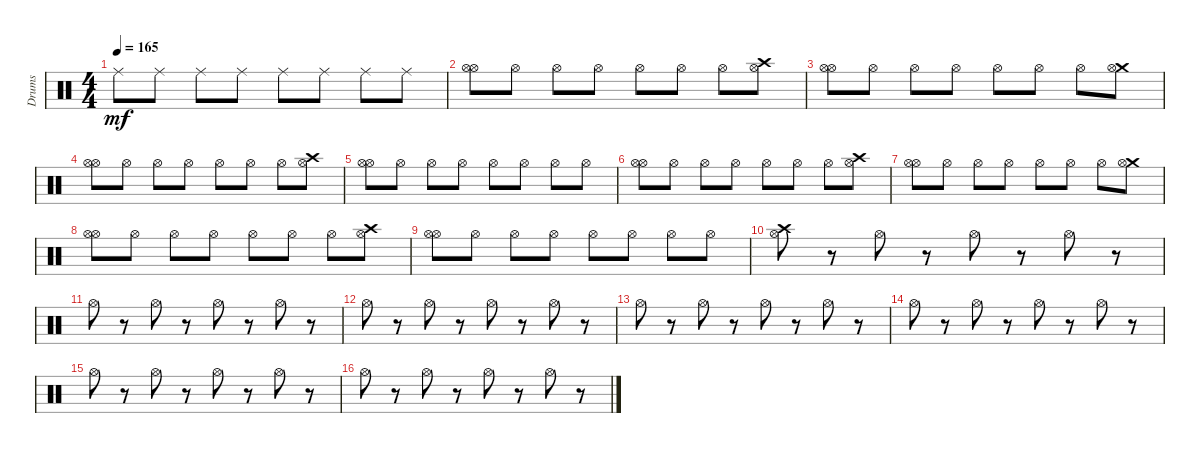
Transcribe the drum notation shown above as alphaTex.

\track ("Drums" "Drums") {instrument percussion}
\staff {score}
\articulation defaults
\ts (4 4)
\tempo 165
\clef neutral
\ks c "Ride (middle)".8{dy mf} "Ride (middle)".8 "Ride (middle)".8 "Ride (middle)".8 "Ride (middle)".8 "Ride (middle)".8 "Ride (middle)".8 "Ride (middle)".8
|
("Hi-Hat (open)" "Hi-Hat (open)").8 "Hi-Hat (open)".8 "Hi-Hat (open)".8 "Hi-Hat (open)".8 "Hi-Hat (open)".8 "Hi-Hat (open)".8 "Hi-Hat (open)".8 ("Crash high (hit)" "Hi-Hat (open)").8 |
("Hi-Hat (open)" "Hi-Hat (open)").8 "Hi-Hat (open)".8 "Hi-Hat (open)".8 "Hi-Hat (open)".8 "Hi-Hat (open)".8 "Hi-Hat (open)".8 "Hi-Hat (open)".8 ("Crash medium (hit)" "Hi-Hat (open)").8 |
("Hi-Hat (open)" "Hi-Hat (open)").8 "Hi-Hat (open)".8 "Hi-Hat (open)".8 "Hi-Hat (open)".8 "Hi-Hat (open)".8 "Hi-Hat (open)".8 "Hi-Hat (open)".8 ("Hi-Hat (open)" "Crash high (hit)").8 |
("Hi-Hat (open)" "Hi-Hat (open)").8 "Hi-Hat (open)".8 "Hi-Hat (open)".8 "Hi-Hat (open)".8 "Hi-Hat (open)".8 "Hi-Hat (open)".8 "Hi-Hat (open)".8 "Hi-Hat (open)".8 |
("Hi-Hat (open)" "Hi-Hat (open)").8 "Hi-Hat (open)".8 "Hi-Hat (open)".8 "Hi-Hat (open)".8 "Hi-Hat (open)".8 "Hi-Hat (open)".8 "Hi-Hat (open)".8 ("Crash high (hit)" "Hi-Hat (open)").8 |
("Hi-Hat (open)" "Hi-Hat (open)").8 "Hi-Hat (open)".8 "Hi-Hat (open)".8 "Hi-Hat (open)".8 "Hi-Hat (open)".8 "Hi-Hat (open)".8 "Hi-Hat (open)".8 ("Crash medium (hit)" "Hi-Hat (open)").8 |
("Hi-Hat (open)" "Hi-Hat (open)").8 "Hi-Hat (open)".8 "Hi-Hat (open)".8 "Hi-Hat (open)".8 "Hi-Hat (open)".8 "Hi-Hat (open)".8 "Hi-Hat (open)".8 ("Crash high (hit)" "Hi-Hat (open)").8 |
("Hi-Hat (open)" "Hi-Hat (open)").8 "Hi-Hat (open)".8 "Hi-Hat (open)".8 "Hi-Hat (open)".8 "Hi-Hat (open)".8 "Hi-Hat (open)".8 "Hi-Hat (open)".8 "Hi-Hat (open)".8 |
("Crash high (hit)" "Hi-Hat (open)").8 r.8 "Hi-Hat (open)".8 r.8 "Hi-Hat (open)".8 r.8 "Hi-Hat (open)".8 r.8 |
"Hi-Hat (open)".8 r.8 "Hi-Hat (open)".8 r.8 "Hi-Hat (open)".8 r.8 "Hi-Hat (open)".8 r.8 |
"Hi-Hat (open)".8 r.8 "Hi-Hat (open)".8 r.8 "Hi-Hat (open)".8 r.8 "Hi-Hat (open)".8 r.8 |
"Hi-Hat (open)".8 r.8 "Hi-Hat (open)".8 r.8 "Hi-Hat (open)".8 r.8 "Hi-Hat (open)".8 r.8 |
"Hi-Hat (open)".8 r.8 "Hi-Hat (open)".8 r.8 "Hi-Hat (open)".8 r.8 "Hi-Hat (open)".8 r.8 |
"Hi-Hat (open)".8 r.8 "Hi-Hat (open)".8 r.8 "Hi-Hat (open)".8 r.8 "Hi-Hat (open)".8 r.8 |
"Hi-Hat (open)".8 r.8 "Hi-Hat (open)".8 r.8 "Hi-Hat (open)".8 r.8 "Hi-Hat (open)".8 r.8
